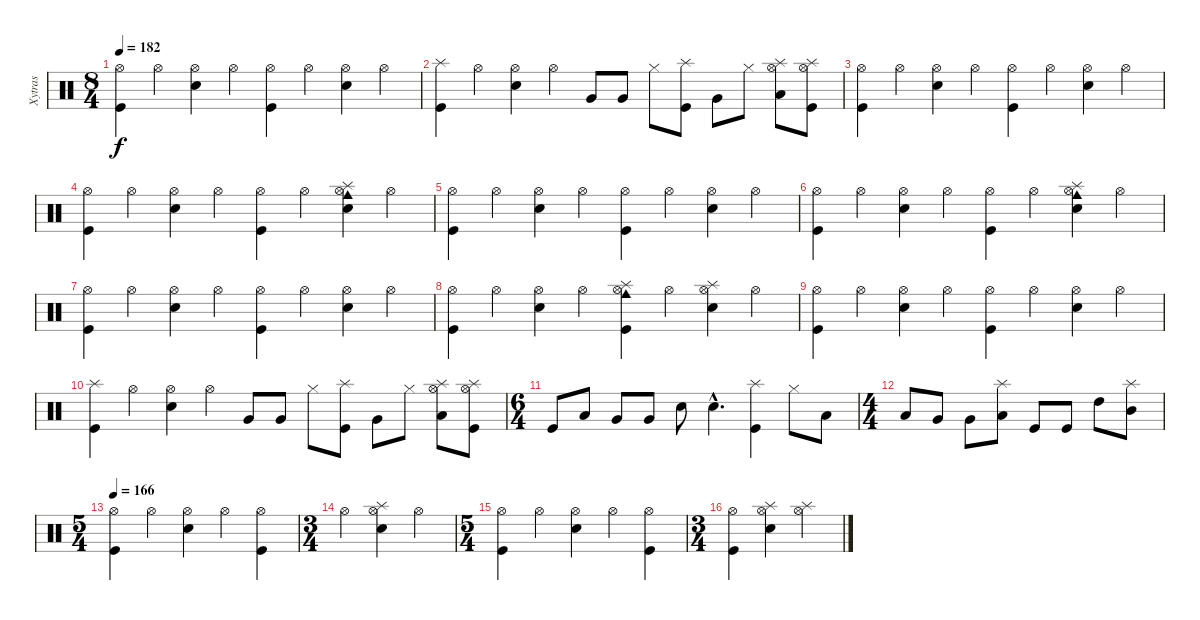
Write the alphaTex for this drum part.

\track ("Xytras" "Xytras") {instrument percussion}
\staff {score}
\articulation defaults
\ts (8 4)
\tempo 182
\clef neutral
\ks c
("Hi-Hat (open)" "Kick (hit)").4{dy f} "Hi-Hat (open)".4 ("Hi-Hat (open)" "Electric Snare (hit)").4 "Hi-Hat (open)".4 ("Hi-Hat (open)" "Kick (hit)").4 "Hi-Hat (open)".4 ("Hi-Hat (open)" "Electric Snare (hit)").4 "Hi-Hat (open)".4 |
("Splash (hit)" "Kick (hit)").4 "Hi-Hat (open)".4 ("Hi-Hat (open)" "Electric Snare (hit)").4 "Hi-Hat (open)".4 "Very Low Tom (hit)".8 "Very Low Tom (hit)".8 "Hi-Hat (closed)".8 ("Kick (hit)" "Splash (hit)").8 "Very Low Tom (hit)".8 "Hi-Hat (closed)".8 ("Low Floor Tom (hit)" "Splash (hit)" "Hi-Hat (open)").8 ("Kick (hit)" "Hi-Hat (open)" "Splash (hit)").8 |
("Hi-Hat (open)" "Kick (hit)").4 "Hi-Hat (open)".4 ("Hi-Hat (open)" "Electric Snare (hit)").4 "Hi-Hat (open)".4 ("Hi-Hat (open)" "Kick (hit)").4 "Hi-Hat (open)".4 ("Hi-Hat (open)" "Electric Snare (hit)").4 "Hi-Hat (open)".4 |
("Hi-Hat (open)" "Kick (hit)").4 "Hi-Hat (open)".4 ("Hi-Hat (open)" "Electric Snare (hit)").4 "Hi-Hat (open)".4 ("Hi-Hat (open)" "Kick (hit)").4 "Hi-Hat (open)".4 ("Hi-Hat (open)" "Electric Snare (hit)" "Splash (hit)" "Cowbell medium (hit)").4 "Hi-Hat (open)".4 |
("Hi-Hat (open)" "Kick (hit)").4 "Hi-Hat (open)".4 ("Hi-Hat (open)" "Electric Snare (hit)").4 "Hi-Hat (open)".4 ("Hi-Hat (open)" "Kick (hit)").4 "Hi-Hat (open)".4 ("Hi-Hat (open)" "Electric Snare (hit)").4 "Hi-Hat (open)".4 |
("Hi-Hat (open)" "Kick (hit)").4 "Hi-Hat (open)".4 ("Hi-Hat (open)" "Electric Snare (hit)").4 "Hi-Hat (open)".4 ("Hi-Hat (open)" "Kick (hit)").4 "Hi-Hat (open)".4 ("Hi-Hat (open)" "Electric Snare (hit)" "Splash (hit)" "Cowbell medium (hit)").4 "Hi-Hat (open)".4 |
("Hi-Hat (open)" "Kick (hit)").4 "Hi-Hat (open)".4 ("Hi-Hat (open)" "Electric Snare (hit)").4 "Hi-Hat (open)".4 ("Hi-Hat (open)" "Kick (hit)").4 "Hi-Hat (open)".4 ("Hi-Hat (open)" "Electric Snare (hit)").4 "Hi-Hat (open)".4 |
("Hi-Hat (open)" "Kick (hit)").4 "Hi-Hat (open)".4 ("Hi-Hat (open)" "Electric Snare (hit)").4 "Hi-Hat (open)".4 ("Hi-Hat (open)" "Kick (hit)" "Splash (hit)" "Cowbell medium (hit)").4 "Hi-Hat (open)".4 ("Hi-Hat (open)" "Electric Snare (hit)" "Splash (hit)").4 "Hi-Hat (open)".4 |
("Hi-Hat (open)" "Kick (hit)").4 "Hi-Hat (open)".4 ("Hi-Hat (open)" "Electric Snare (hit)").4 "Hi-Hat (open)".4 ("Hi-Hat (open)" "Kick (hit)").4 "Hi-Hat (open)".4 ("Hi-Hat (open)" "Electric Snare (hit)").4 "Hi-Hat (open)".4 |
("Splash (hit)" "Kick (hit)").4 "Hi-Hat (open)".4 ("Hi-Hat (open)" "Electric Snare (hit)").4 "Hi-Hat (open)".4 "Very Low Tom (hit)".8 "Very Low Tom (hit)".8 "Hi-Hat (closed)".8 ("Kick (hit)" "Splash (hit)").8 "Very Low Tom (hit)".8 "Hi-Hat (closed)".8 ("Low Floor Tom (hit)" "Splash (hit)" "Hi-Hat (open)").8 ("Kick (hit)" "Hi-Hat (open)" "Splash (hit)").8 |
\ts (6 4)
"Kick (hit)".8 "Low Tom (hit)".8 "Very Low Tom (hit)".8 "Very Low Tom (hit)".8 "Snare (hit) 2".8 "Snare (hit) 2"{hac}.4{d} ("Kick (hit)" "Splash (hit)").4 "Hi-Hat (closed)".8 "Low Floor Tom (hit)".8 |
\ts (4 4)
"Low Floor Tom (hit)".8 "Very Low Tom (hit)".8 "Very Low Tom (hit)".8 ("Low Tom (hit)" "Splash (hit)").8 "Kick (hit)".8 "Kick (hit)".8 "High Tom (hit)".8 ("Mid Tom (hit)" "Splash (hit)").8 |
\ts (5 4)
\tempo 166
("Hi-Hat (open)" "Kick (hit)").4 "Hi-Hat (open)".4 ("Hi-Hat (open)" "Electric Snare (hit)").4 "Hi-Hat (open)".4 ("Hi-Hat (open)" "Kick (hit)").4 |
\ts (3 4)
"Hi-Hat (open)".4 ("Hi-Hat (open)" "Electric Snare (hit)" "Splash (hit)").4 "Hi-Hat (open)".4 |
\ts (5 4)
("Hi-Hat (open)" "Kick (hit)").4 "Hi-Hat (open)".4 ("Hi-Hat (open)" "Electric Snare (hit)").4 "Hi-Hat (open)".4 ("Hi-Hat (open)" "Kick (hit)").4 |
\ts (3 4)
("Hi-Hat (open)" "Kick (hit)").4 ("Hi-Hat (open)" "Electric Snare (hit)" "Splash (hit)").4 ("Hi-Hat (open)" "Splash (hit)").4
